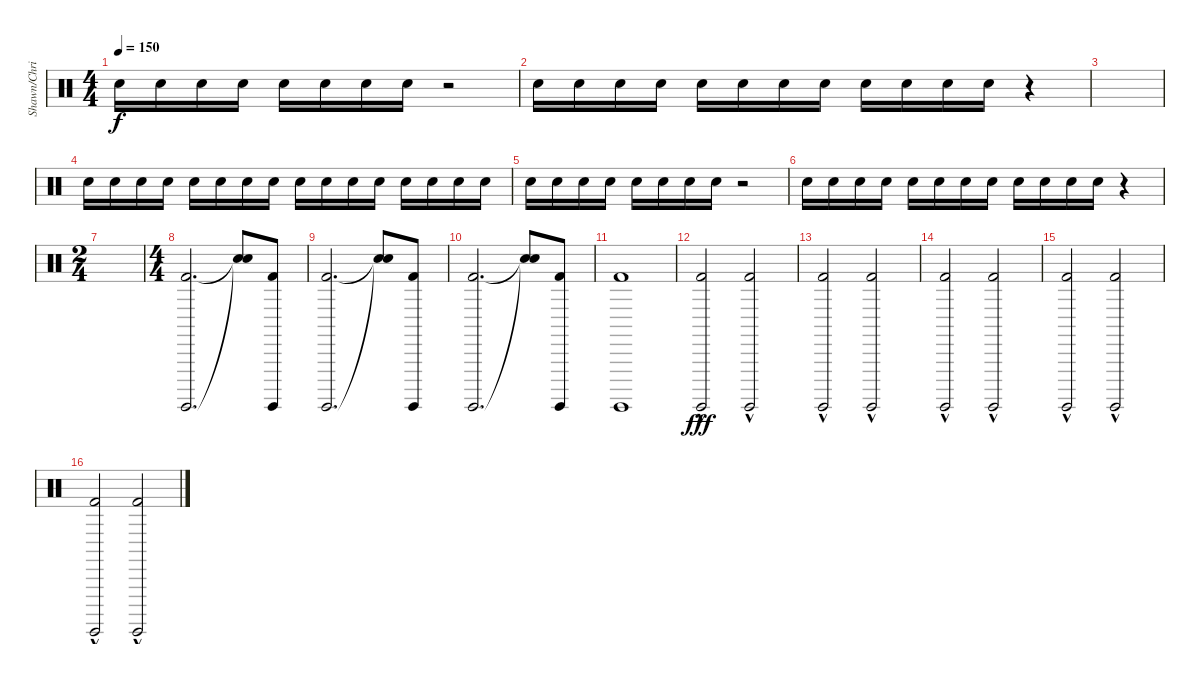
\track ("Shawn/Chris" "Shawn/Chri") {instrument percussion}
\staff {score}
\articulation defaults
\ts (4 4)
\tempo 150
\clef neutral
\ks c "Snare (hit) 2".16{dy f} "Snare (hit) 2".16 "Snare (hit) 2".16 "Snare (hit) 2".16 "Snare (hit) 2".16 "Snare (hit) 2".16 "Snare (hit) 2".16 "Snare (hit) 2".16
r.2 |
"Snare (hit) 2".16 "Snare (hit) 2".16 "Snare (hit) 2".16 "Snare (hit) 2".16 "Snare (hit) 2".16 "Snare (hit) 2".16 "Snare (hit) 2".16 "Snare (hit) 2".16 "Snare (hit) 2".16 "Snare (hit) 2".16 "Snare (hit) 2".16 "Snare (hit) 2".16 r.4 |
|
"Snare (hit) 2".16 "Snare (hit) 2".16 "Snare (hit) 2".16 "Snare (hit) 2".16 "Snare (hit) 2".16 "Snare (hit) 2".16 "Snare (hit) 2".16 "Snare (hit) 2".16 "Snare (hit) 2".16 "Snare (hit) 2".16 "Snare (hit) 2".16 "Snare (hit) 2".16 "Snare (hit) 2".16 "Snare (hit) 2".16 "Snare (hit) 2".16 "Snare (hit) 2".16 |
"Snare (hit) 2".16 "Snare (hit) 2".16 "Snare (hit) 2".16 "Snare (hit) 2".16 "Snare (hit) 2".16 "Snare (hit) 2".16 "Snare (hit) 2".16 "Snare (hit) 2".16 r.2 |
"Snare (hit) 2".16 "Snare (hit) 2".16 "Snare (hit) 2".16 "Snare (hit) 2".16 "Snare (hit) 2".16 "Snare (hit) 2".16 "Snare (hit) 2".16 "Snare (hit) 2".16 "Snare (hit) 2".16 "Snare (hit) 2".16 "Snare (hit) 2".16 "Snare (hit) 2".16 r.4 |
\ts (2 4)
|
\ts (4 4)
("Surdo (hit)" "Kick (hit) 2").2{d} ("Snare (hit)"{t} "Snare (hit)"{t}).8 ("Surdo (hit)" "Kick (hit) 2").8 |
("Surdo (hit)" "Kick (hit) 2").2{d} ("Snare (hit)"{t} "Snare (hit)"{t}).8 ("Surdo (hit)" "Kick (hit) 2").8 |
("Surdo (hit)" "Kick (hit) 2").2{d} ("Snare (hit)"{t} "Snare (hit)"{t}).8 ("Surdo (hit)" "Kick (hit) 2").8 |
("Surdo (hit)" "Kick (hit) 2").1 |
("Surdo (hit)"{hac} "Kick (hit) 2"{hac}).2{dy fff} ("Surdo (hit)"{hac} "Kick (hit) 2"{hac}).2 |
("Surdo (hit)"{hac} "Kick (hit) 2"{hac}).2 ("Surdo (hit)"{hac} "Kick (hit) 2"{hac}).2 |
("Surdo (hit)"{hac} "Kick (hit) 2"{hac}).2 ("Surdo (hit)"{hac} "Kick (hit) 2"{hac}).2 |
("Surdo (hit)"{hac} "Kick (hit) 2"{hac}).2 ("Surdo (hit)"{hac} "Kick (hit) 2"{hac}).2 |
("Surdo (hit)"{hac} "Kick (hit) 2"{hac}).2 ("Surdo (hit)"{hac} "Kick (hit) 2"{hac}).2
